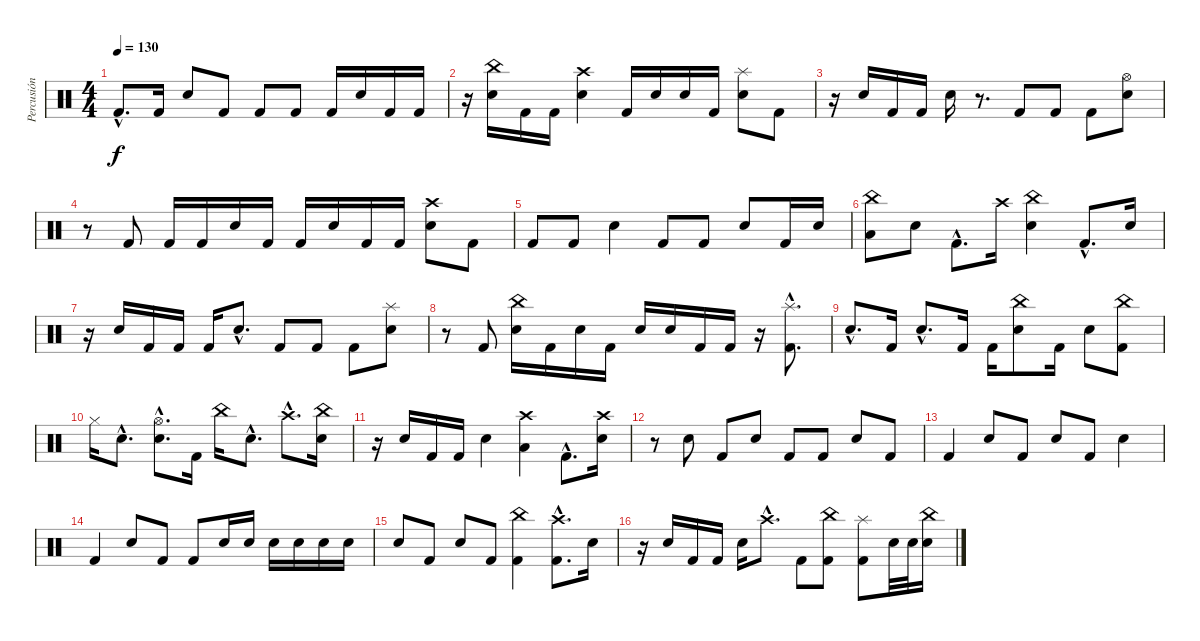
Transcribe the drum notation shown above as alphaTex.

\track ("Percusión" "Percusión") {instrument percussion}
\staff {score}
\articulation defaults
\ts (4 4)
\tempo 130
\clef neutral
\ks c "Kick (hit) 2"{hac}.8{d dy f} "Kick (hit) 2".16 "Electric Snare (hit)".8 "Kick (hit) 2".8 "Kick (hit) 2".8 "Kick (hit) 2".8 "Kick (hit) 2".16 "Electric Snare (hit)".16 "Kick (hit) 2".16 "Kick (hit) 2".16
|
r.16 ("China (hit)" "Electric Snare (hit)").16 "Kick (hit) 2".16 "Kick (hit) 2".16 ("Crash high (hit)" "Electric Snare (hit)").4 "Kick (hit) 2".16 "Electric Snare (hit)".16 "Electric Snare (hit)".16 "Kick (hit) 2".16 ("Splash (hit)" "Electric Snare (hit)").8 "Kick (hit) 2".8 |
r.16 "Electric Snare (hit)".16 "Kick (hit) 2".16 "Kick (hit) 2".16 "Electric Snare (hit)".16 r.8{d} "Kick (hit) 2".8 "Kick (hit) 2".8 "Kick (hit) 2".8 ("Hi-Hat (open)" "Electric Snare (hit)").8 |
r.8 "Kick (hit) 2".8 "Kick (hit) 2".16 "Kick (hit) 2".16 "Electric Snare (hit)".16 "Kick (hit) 2".16 "Kick (hit) 2".16 "Electric Snare (hit)".16 "Kick (hit) 2".16 "Kick (hit) 2".16 ("Crash high (hit)" "Electric Snare (hit)").8 "Kick (hit) 2".8 |
"Kick (hit) 2".8 "Kick (hit) 2".8 "Electric Snare (hit)".4 "Kick (hit) 2".8 "Kick (hit) 2".8 "Electric Snare (hit)".8 "Kick (hit) 2".16 "Electric Snare (hit)".16 |
("China (hit)" "Low Floor Tom (hit)").8 "Electric Snare (hit)".8 "Kick (hit) 2"{hac}.8{d} "Crash high (hit)".16 ("China (hit)" "Electric Snare (hit)").4 "Kick (hit) 2"{hac}.8{d} "Electric Snare (hit)".16 |
r.16 "Electric Snare (hit)".16 "Kick (hit) 2".16 "Kick (hit) 2".16 "Kick (hit) 2".16 "Electric Snare (hit)"{hac}.8{d} "Kick (hit) 2".8 "Kick (hit) 2".8 "Kick (hit) 2".8 ("Splash (hit)" "Electric Snare (hit)").8 |
r.8 "Kick (hit) 2".8 ("China (hit)" "Electric Snare (hit)").16 "Kick (hit) 2".16 "Electric Snare (hit)".16 "Kick (hit) 2".16 "Electric Snare (hit)".16 "Electric Snare (hit)".16 "Kick (hit) 2".16 "Kick (hit) 2".16 r.16 ("Splash (hit)"{hac} "Kick (hit) 2"{hac}).8{d} |
"Electric Snare (hit)"{hac}.8{d} "Kick (hit) 2".16 "Electric Snare (hit)"{hac}.8{d} "Kick (hit) 2".16 "Kick (hit) 2".16 ("China (hit)" "Electric Snare (hit)").8 "Kick (hit) 2".16 "Electric Snare (hit)".8 ("China (hit)" "Kick (hit) 2").8 |
"Hi-Hat (closed)".16 "Electric Snare (hit)"{hac}.8{d} ("Hi-Hat (open)"{hac} "Electric Snare (hit)"{hac}).8{d} "Kick (hit) 2".16 "China (hit)".16 "Electric Snare (hit)"{hac}.8{d} "Crash high (hit)"{hac}.8{d} ("China (hit)" "Electric Snare (hit)").16 |
r.16 "Electric Snare (hit)".16 "Kick (hit) 2".16 "Kick (hit) 2".16 "Electric Snare (hit)".4 ("Crash high (hit)" "Low Floor Tom (hit)").4 "Kick (hit) 2"{hac}.8{d} ("Crash high (hit)" "Electric Snare (hit)").16 |
r.8 "Electric Snare (hit)".8 "Kick (hit) 2".8 "Electric Snare (hit)".8 "Kick (hit) 2".8 "Kick (hit) 2".8 "Electric Snare (hit)".8 "Kick (hit) 2".8 |
"Kick (hit) 2".4 "Electric Snare (hit)".8 "Kick (hit) 2".8 "Electric Snare (hit)".8 "Kick (hit) 2".8 "Electric Snare (hit)".4 |
"Kick (hit) 2".4 "Electric Snare (hit)".8 "Kick (hit) 2".8 "Kick (hit) 2".8 "Electric Snare (hit)".16 "Electric Snare (hit)".16 "Electric Snare (hit)".16 "Electric Snare (hit)".16 "Electric Snare (hit)".16 "Electric Snare (hit)".16 |
"Electric Snare (hit)".8 "Kick (hit) 2".8 "Electric Snare (hit)".8 "Kick (hit) 2".8 ("China (hit)" "Kick (hit) 2").4 ("Crash high (hit)"{hac} "Kick (hit) 2"{hac}).8{d} "Electric Snare (hit)".16 |
r.16 "Electric Snare (hit)".16 "Kick (hit) 2".16 "Kick (hit) 2".16 "Electric Snare (hit)".16 "Crash high (hit)"{hac}.8{d} "Kick (hit) 2".8 ("China (hit)" "Kick (hit) 2").8 ("Splash (hit)" "Kick (hit) 2").8 "Electric Snare (hit)".32 "Electric Snare (hit)".32 ("China (hit)" "Electric Snare (hit)").16
